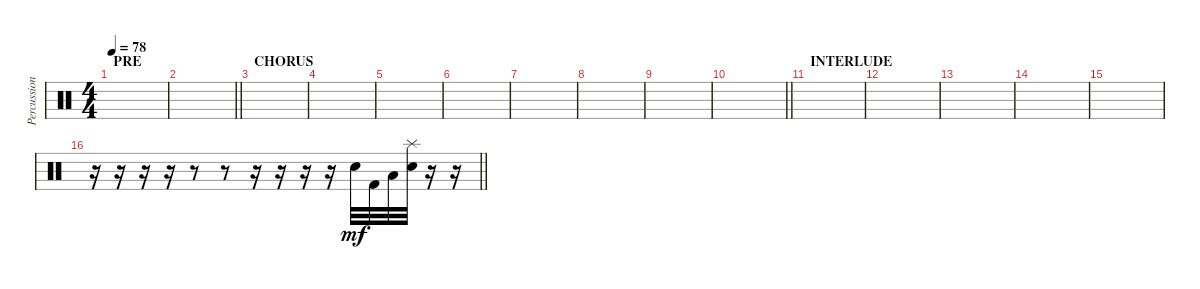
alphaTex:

\track ("Percussion" "Percussion") {instrument percussion}
\staff {score}
\articulation defaults
\ts (4 4)
\section ("" "PRE")
\tempo 78
\clef neutral
\ks c
|
\barLineRight lightlight
|
\section ("" "CHORUS")
|
|
|
|
|
|
|
\barLineRight lightlight
|
\section ("" "INTERLUDE")
|
|
|
|
|
\barLineRight lightlight
r.16 r.16 r.16 r.16 r.8 r.8 r.16 r.16 r.16 r.16 "Snare (hit) 2".32{dy mf} "Kick (hit) 2".32 "Low Floor Tom (hit)".32 ("Snare (hit) 2" "Splash (hit)").32 r.16 r.16
